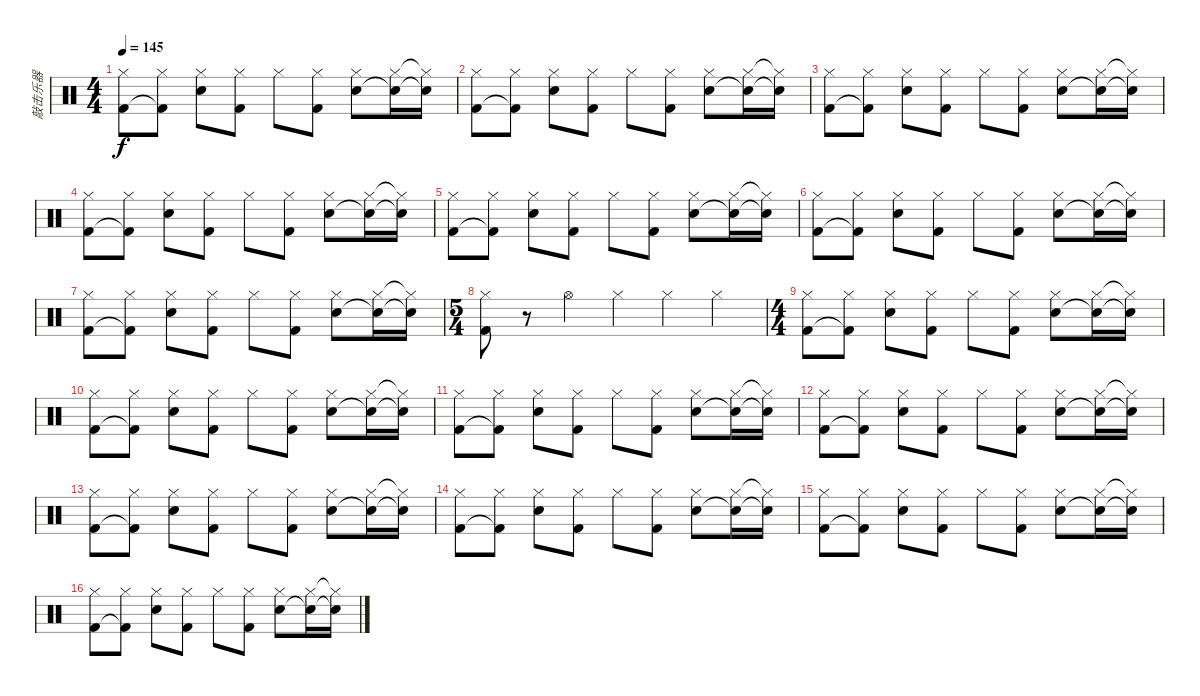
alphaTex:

\track ("敲击乐器" "敲击乐器") {instrument percussion}
\staff {score}
\articulation defaults
\ts (4 4)
\tempo 145
\clef neutral
\ks c
("Hi-Hat (closed)" "Kick (hit) 2").8{dy f} ("Hi-Hat (closed)" "Kick (hit) 2"{t}).8 ("Hi-Hat (closed)" "Snare (hit) 2").8 ("Hi-Hat (closed)" "Kick (hit) 2").8 "Hi-Hat (closed)".8 ("Hi-Hat (closed)" "Kick (hit) 2").8 ("Hi-Hat (closed)" "Snare (hit) 2").8 ("Hi-Hat (closed)" "Snare (hit) 2"{t}).16 ("Hi-Hat (closed)"{t} "Snare (hit) 2"{t}).16 |
("Hi-Hat (closed)" "Kick (hit) 2").8 ("Hi-Hat (closed)" "Kick (hit) 2"{t}).8 ("Hi-Hat (closed)" "Snare (hit) 2").8 ("Hi-Hat (closed)" "Kick (hit) 2").8 "Hi-Hat (closed)".8 ("Hi-Hat (closed)" "Kick (hit) 2").8 ("Hi-Hat (closed)" "Snare (hit) 2").8 ("Hi-Hat (closed)" "Snare (hit) 2"{t}).16 ("Hi-Hat (closed)"{t} "Snare (hit) 2"{t}).16 |
("Hi-Hat (closed)" "Kick (hit) 2").8 ("Hi-Hat (closed)" "Kick (hit) 2"{t}).8 ("Hi-Hat (closed)" "Snare (hit) 2").8 ("Hi-Hat (closed)" "Kick (hit) 2").8 "Hi-Hat (closed)".8 ("Hi-Hat (closed)" "Kick (hit) 2").8 ("Hi-Hat (closed)" "Snare (hit) 2").8 ("Hi-Hat (closed)" "Snare (hit) 2"{t}).16 ("Hi-Hat (closed)"{t} "Snare (hit) 2"{t}).16 |
("Hi-Hat (closed)" "Kick (hit) 2").8 ("Hi-Hat (closed)" "Kick (hit) 2"{t}).8 ("Hi-Hat (closed)" "Snare (hit) 2").8 ("Hi-Hat (closed)" "Kick (hit) 2").8 "Hi-Hat (closed)".8 ("Hi-Hat (closed)" "Kick (hit) 2").8 ("Hi-Hat (closed)" "Snare (hit) 2").8 ("Hi-Hat (closed)" "Snare (hit) 2"{t}).16 ("Hi-Hat (closed)"{t} "Snare (hit) 2"{t}).16 |
("Hi-Hat (closed)" "Kick (hit) 2").8 ("Hi-Hat (closed)" "Kick (hit) 2"{t}).8 ("Hi-Hat (closed)" "Snare (hit) 2").8 ("Hi-Hat (closed)" "Kick (hit) 2").8 "Hi-Hat (closed)".8 ("Hi-Hat (closed)" "Kick (hit) 2").8 ("Hi-Hat (closed)" "Snare (hit) 2").8 ("Hi-Hat (closed)" "Snare (hit) 2"{t}).16 ("Hi-Hat (closed)"{t} "Snare (hit) 2"{t}).16 |
("Hi-Hat (closed)" "Kick (hit) 2").8 ("Hi-Hat (closed)" "Kick (hit) 2"{t}).8 ("Hi-Hat (closed)" "Snare (hit) 2").8 ("Hi-Hat (closed)" "Kick (hit) 2").8 "Hi-Hat (closed)".8 ("Hi-Hat (closed)" "Kick (hit) 2").8 ("Hi-Hat (closed)" "Snare (hit) 2").8 ("Hi-Hat (closed)" "Snare (hit) 2"{t}).16 ("Hi-Hat (closed)"{t} "Snare (hit) 2"{t}).16 |
("Hi-Hat (closed)" "Kick (hit) 2").8 ("Hi-Hat (closed)" "Kick (hit) 2"{t}).8 ("Hi-Hat (closed)" "Snare (hit) 2").8 ("Hi-Hat (closed)" "Kick (hit) 2").8 "Hi-Hat (closed)".8 ("Hi-Hat (closed)" "Kick (hit) 2").8 ("Hi-Hat (closed)" "Snare (hit) 2").8 ("Hi-Hat (closed)" "Snare (hit) 2"{t}).16 ("Hi-Hat (closed)"{t} "Snare (hit) 2"{t}).16 |
\ts (5 4)
("Hi-Hat (closed)" "Kick (hit) 2").8 r.8 "Hi-Hat (open)".4 "Hi-Hat (closed)".4 "Hi-Hat (closed)".4 "Hi-Hat (closed)".4 |
\ts (4 4)
("Hi-Hat (closed)" "Kick (hit) 2").8 ("Hi-Hat (closed)" "Kick (hit) 2"{t}).8 ("Hi-Hat (closed)" "Snare (hit) 2").8 ("Hi-Hat (closed)" "Kick (hit) 2").8 "Hi-Hat (closed)".8 ("Hi-Hat (closed)" "Kick (hit) 2").8 ("Hi-Hat (closed)" "Snare (hit) 2").8 ("Hi-Hat (closed)" "Snare (hit) 2"{t}).16 ("Hi-Hat (closed)"{t} "Snare (hit) 2"{t}).16 |
("Hi-Hat (closed)" "Kick (hit) 2").8 ("Hi-Hat (closed)" "Kick (hit) 2"{t}).8 ("Hi-Hat (closed)" "Snare (hit) 2").8 ("Hi-Hat (closed)" "Kick (hit) 2").8 "Hi-Hat (closed)".8 ("Hi-Hat (closed)" "Kick (hit) 2").8 ("Hi-Hat (closed)" "Snare (hit) 2").8 ("Hi-Hat (closed)" "Snare (hit) 2"{t}).16 ("Hi-Hat (closed)"{t} "Snare (hit) 2"{t}).16 |
("Hi-Hat (closed)" "Kick (hit) 2").8 ("Hi-Hat (closed)" "Kick (hit) 2"{t}).8 ("Hi-Hat (closed)" "Snare (hit) 2").8 ("Hi-Hat (closed)" "Kick (hit) 2").8 "Hi-Hat (closed)".8 ("Hi-Hat (closed)" "Kick (hit) 2").8 ("Hi-Hat (closed)" "Snare (hit) 2").8 ("Hi-Hat (closed)" "Snare (hit) 2"{t}).16 ("Hi-Hat (closed)"{t} "Snare (hit) 2"{t}).16 |
("Hi-Hat (closed)" "Kick (hit) 2").8 ("Hi-Hat (closed)" "Kick (hit) 2"{t}).8 ("Hi-Hat (closed)" "Snare (hit) 2").8 ("Hi-Hat (closed)" "Kick (hit) 2").8 "Hi-Hat (closed)".8 ("Hi-Hat (closed)" "Kick (hit) 2").8 ("Hi-Hat (closed)" "Snare (hit) 2").8 ("Hi-Hat (closed)" "Snare (hit) 2"{t}).16 ("Hi-Hat (closed)"{t} "Snare (hit) 2"{t}).16 |
("Hi-Hat (closed)" "Kick (hit) 2").8 ("Hi-Hat (closed)" "Kick (hit) 2"{t}).8 ("Hi-Hat (closed)" "Snare (hit) 2").8 ("Hi-Hat (closed)" "Kick (hit) 2").8 "Hi-Hat (closed)".8 ("Hi-Hat (closed)" "Kick (hit) 2").8 ("Hi-Hat (closed)" "Snare (hit) 2").8 ("Hi-Hat (closed)" "Snare (hit) 2"{t}).16 ("Hi-Hat (closed)"{t} "Snare (hit) 2"{t}).16 |
("Hi-Hat (closed)" "Kick (hit) 2").8 ("Hi-Hat (closed)" "Kick (hit) 2"{t}).8 ("Hi-Hat (closed)" "Snare (hit) 2").8 ("Hi-Hat (closed)" "Kick (hit) 2").8 "Hi-Hat (closed)".8 ("Hi-Hat (closed)" "Kick (hit) 2").8 ("Hi-Hat (closed)" "Snare (hit) 2").8 ("Hi-Hat (closed)" "Snare (hit) 2"{t}).16 ("Hi-Hat (closed)"{t} "Snare (hit) 2"{t}).16 |
("Hi-Hat (closed)" "Kick (hit) 2").8 ("Hi-Hat (closed)" "Kick (hit) 2"{t}).8 ("Hi-Hat (closed)" "Snare (hit) 2").8 ("Hi-Hat (closed)" "Kick (hit) 2").8 "Hi-Hat (closed)".8 ("Hi-Hat (closed)" "Kick (hit) 2").8 ("Hi-Hat (closed)" "Snare (hit) 2").8 ("Hi-Hat (closed)" "Snare (hit) 2"{t}).16 ("Hi-Hat (closed)"{t} "Snare (hit) 2"{t}).16 |
("Hi-Hat (closed)" "Kick (hit) 2").8 ("Hi-Hat (closed)" "Kick (hit) 2"{t}).8 ("Hi-Hat (closed)" "Snare (hit) 2").8 ("Hi-Hat (closed)" "Kick (hit) 2").8 "Hi-Hat (closed)".8 ("Hi-Hat (closed)" "Kick (hit) 2").8 ("Hi-Hat (closed)" "Snare (hit) 2").8 ("Hi-Hat (closed)" "Snare (hit) 2"{t}).16 ("Hi-Hat (closed)"{t} "Snare (hit) 2"{t}).16
